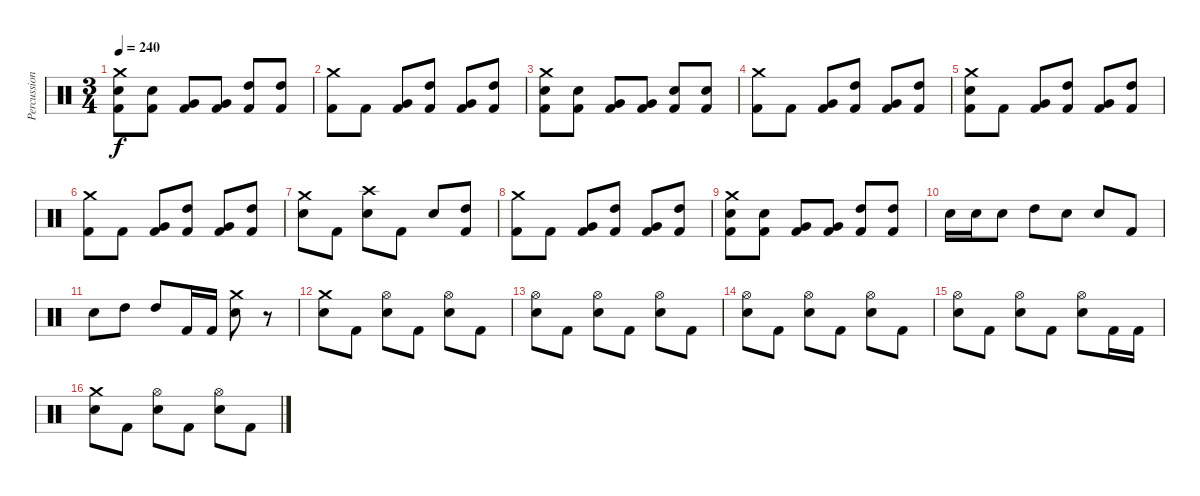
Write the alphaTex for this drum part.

\track ("Percussion" "Percussion") {instrument percussion}
\staff {score}
\articulation defaults
\ts (3 4)
\tempo 240
\clef neutral
\ks c
("Crash medium (hit)" "Electric Snare (hit)" "Kick (hit) 2").8{dy f} ("Electric Snare (hit)" "Kick (hit) 2").8 ("Very Low Tom (hit)" "Kick (hit) 2").8 ("Very Low Tom (hit)" "Kick (hit) 2").8 ("High Tom (hit)" "Kick (hit) 2").8 ("High Tom (hit)" "Kick (hit) 2").8 |
("Crash medium (hit)" "Kick (hit) 2").8 "Kick (hit) 2".8 ("Very Low Tom (hit)" "Kick (hit) 2").8 ("High Tom (hit)" "Kick (hit) 2").8 ("Very Low Tom (hit)" "Kick (hit) 2").8 ("High Tom (hit)" "Kick (hit) 2").8 |
("Crash medium (hit)" "Electric Snare (hit)" "Kick (hit) 2").8 ("Electric Snare (hit)" "Kick (hit) 2").8 ("Very Low Tom (hit)" "Kick (hit) 2").8 ("Very Low Tom (hit)" "Kick (hit) 2").8 ("Electric Snare (hit)" "Kick (hit) 2").8 ("Electric Snare (hit)" "Kick (hit) 2").8 |
("Crash medium (hit)" "Kick (hit) 2").8 "Kick (hit) 2".8 ("Very Low Tom (hit)" "Kick (hit) 2").8 ("High Tom (hit)" "Kick (hit) 2").8 ("Very Low Tom (hit)" "Kick (hit) 2").8 ("High Tom (hit)" "Kick (hit) 2").8 |
("Crash medium (hit)" "Electric Snare (hit)" "Kick (hit) 2").8 "Kick (hit) 2".8 ("Very Low Tom (hit)" "Kick (hit) 2").8 ("High Tom (hit)" "Kick (hit) 2").8 ("Very Low Tom (hit)" "Kick (hit) 2").8 ("High Tom (hit)" "Kick (hit) 2").8 |
("Crash medium (hit)" "Kick (hit) 2").8 "Kick (hit) 2".8 ("Very Low Tom (hit)" "Kick (hit) 2").8 ("High Tom (hit)" "Kick (hit) 2").8 ("Very Low Tom (hit)" "Kick (hit) 2").8 ("High Tom (hit)" "Kick (hit) 2").8 |
("Crash medium (hit)" "Electric Snare (hit)").8 "Kick (hit) 2".8 ("Crash high (hit)" "Electric Snare (hit)").8 "Kick (hit) 2".8 "Electric Snare (hit)".8 ("High Tom (hit)" "Kick (hit) 2").8 |
("Crash medium (hit)" "Kick (hit) 2").8 "Kick (hit) 2".8 ("Very Low Tom (hit)" "Kick (hit) 2").8 ("High Tom (hit)" "Kick (hit) 2").8 ("Very Low Tom (hit)" "Kick (hit) 2").8 ("High Tom (hit)" "Kick (hit) 2").8 |
("Crash medium (hit)" "Electric Snare (hit)" "Kick (hit) 2").8 ("Electric Snare (hit)" "Kick (hit) 2").8 ("Very Low Tom (hit)" "Kick (hit) 2").8 ("Very Low Tom (hit)" "Kick (hit) 2").8 ("High Tom (hit)" "Kick (hit) 2").8 ("High Tom (hit)" "Kick (hit) 2").8 |
"Electric Snare (hit)".16 "Electric Snare (hit)".16 "Electric Snare (hit)".8 "High Tom (hit)".8 "Electric Snare (hit)".8 "Electric Snare (hit)".8 "Kick (hit) 2".8 |
"Electric Snare (hit)".8 "High Tom (hit)".8 "High Tom (hit)".8 "Kick (hit) 2".16 "Kick (hit) 2".16 ("Crash medium (hit)" "Electric Snare (hit)").8 r.8 |
("Crash medium (hit)" "Electric Snare (hit)").8 "Kick (hit) 2".8 ("Hi-Hat (open)" "Electric Snare (hit)").8 "Kick (hit) 2".8 ("Hi-Hat (open)" "Electric Snare (hit)").8 "Kick (hit) 2".8 |
("Hi-Hat (open)" "Electric Snare (hit)").8 "Kick (hit) 2".8 ("Hi-Hat (open)" "Electric Snare (hit)").8 "Kick (hit) 2".8 ("Hi-Hat (open)" "Electric Snare (hit)").8 "Kick (hit) 2".8 |
("Hi-Hat (open)" "Electric Snare (hit)").8 "Kick (hit) 2".8 ("Hi-Hat (open)" "Electric Snare (hit)").8 "Kick (hit) 2".8 ("Hi-Hat (open)" "Electric Snare (hit)").8 "Kick (hit) 2".8 |
("Hi-Hat (open)" "Electric Snare (hit)").8 "Kick (hit) 2".8 ("Hi-Hat (open)" "Electric Snare (hit)").8 "Kick (hit) 2".8 ("Hi-Hat (open)" "Electric Snare (hit)").8 "Kick (hit) 2".16 "Kick (hit) 2".16 |
("Crash medium (hit)" "Electric Snare (hit)").8 "Kick (hit) 2".8 ("Hi-Hat (open)" "Electric Snare (hit)").8 "Kick (hit) 2".8 ("Hi-Hat (open)" "Electric Snare (hit)").8 "Kick (hit) 2".8
